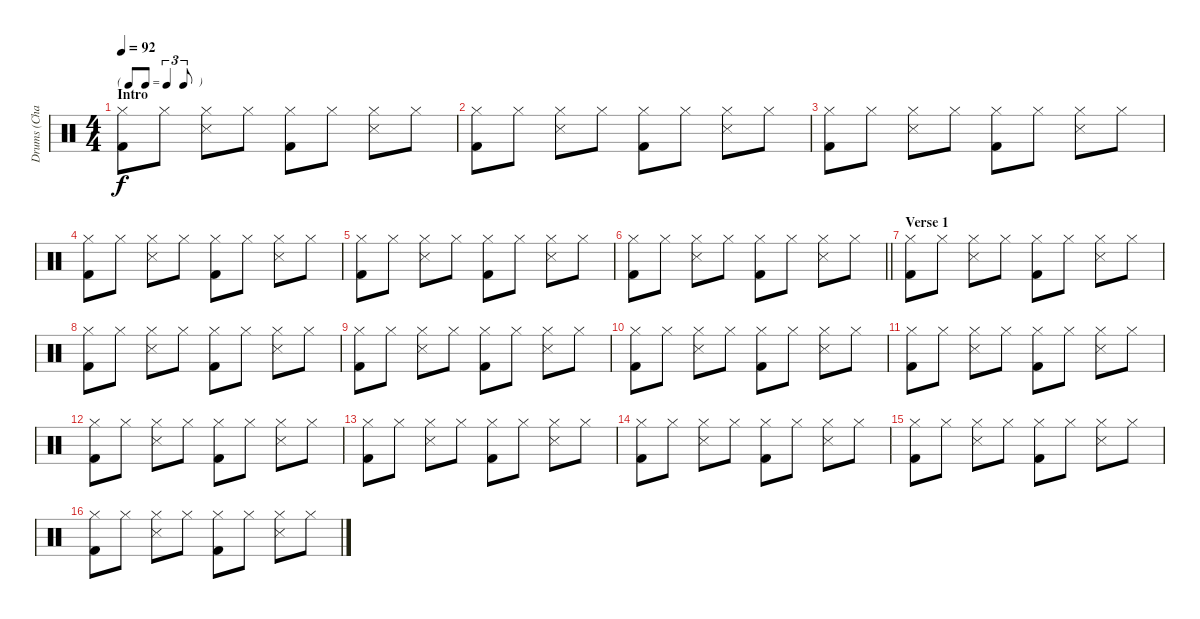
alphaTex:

\track ("Drums (Charlie)" "Drums (Cha") {instrument percussion}
\staff {score}
\articulation defaults
\ts (4 4)
\tf triplet8th
\section ("" "Intro")
\tempo 92
\clef neutral
\ks c
("Hi-Hat (closed)" "Kick (hit) 2").8{dy f} "Hi-Hat (closed)".8 ("Hi-Hat (closed)" "Snare (side stick) 3").8 "Hi-Hat (closed)".8 ("Hi-Hat (closed)" "Kick (hit) 2").8 "Hi-Hat (closed)".8 ("Hi-Hat (closed)" "Snare (side stick) 3").8 "Hi-Hat (closed)".8 |
("Hi-Hat (closed)" "Kick (hit) 2").8 "Hi-Hat (closed)".8 ("Hi-Hat (closed)" "Snare (side stick) 3").8 "Hi-Hat (closed)".8 ("Hi-Hat (closed)" "Kick (hit) 2").8 "Hi-Hat (closed)".8 ("Hi-Hat (closed)" "Snare (side stick) 3").8 "Hi-Hat (closed)".8 |
("Hi-Hat (closed)" "Kick (hit) 2").8 "Hi-Hat (closed)".8 ("Hi-Hat (closed)" "Snare (side stick) 3").8 "Hi-Hat (closed)".8 ("Hi-Hat (closed)" "Kick (hit) 2").8 "Hi-Hat (closed)".8 ("Hi-Hat (closed)" "Snare (side stick) 3").8 "Hi-Hat (closed)".8 |
("Hi-Hat (closed)" "Kick (hit) 2").8 "Hi-Hat (closed)".8 ("Hi-Hat (closed)" "Snare (side stick) 3").8 "Hi-Hat (closed)".8 ("Hi-Hat (closed)" "Kick (hit) 2").8 "Hi-Hat (closed)".8 ("Hi-Hat (closed)" "Snare (side stick) 3").8 "Hi-Hat (closed)".8 |
("Hi-Hat (closed)" "Kick (hit) 2").8 "Hi-Hat (closed)".8 ("Hi-Hat (closed)" "Snare (side stick) 3").8 "Hi-Hat (closed)".8 ("Hi-Hat (closed)" "Kick (hit) 2").8 "Hi-Hat (closed)".8 ("Hi-Hat (closed)" "Snare (side stick) 3").8 "Hi-Hat (closed)".8 |
\barLineRight lightlight
("Hi-Hat (closed)" "Kick (hit) 2").8 "Hi-Hat (closed)".8 ("Hi-Hat (closed)" "Snare (side stick) 3").8 "Hi-Hat (closed)".8 ("Hi-Hat (closed)" "Kick (hit) 2").8 "Hi-Hat (closed)".8 ("Hi-Hat (closed)" "Snare (side stick) 3").8 "Hi-Hat (closed)".8 |
\section ("" "Verse 1")
("Hi-Hat (closed)" "Kick (hit) 2").8 "Hi-Hat (closed)".8 ("Hi-Hat (closed)" "Snare (side stick) 3").8 "Hi-Hat (closed)".8 ("Hi-Hat (closed)" "Kick (hit) 2").8 "Hi-Hat (closed)".8 ("Hi-Hat (closed)" "Snare (side stick) 3").8 "Hi-Hat (closed)".8 |
("Hi-Hat (closed)" "Kick (hit) 2").8 "Hi-Hat (closed)".8 ("Hi-Hat (closed)" "Snare (side stick) 3").8 "Hi-Hat (closed)".8 ("Hi-Hat (closed)" "Kick (hit) 2").8 "Hi-Hat (closed)".8 ("Hi-Hat (closed)" "Snare (side stick) 3").8 "Hi-Hat (closed)".8 |
("Hi-Hat (closed)" "Kick (hit) 2").8 "Hi-Hat (closed)".8 ("Hi-Hat (closed)" "Snare (side stick) 3").8 "Hi-Hat (closed)".8 ("Hi-Hat (closed)" "Kick (hit) 2").8 "Hi-Hat (closed)".8 ("Hi-Hat (closed)" "Snare (side stick) 3").8 "Hi-Hat (closed)".8 |
("Hi-Hat (closed)" "Kick (hit) 2").8 "Hi-Hat (closed)".8 ("Hi-Hat (closed)" "Snare (side stick) 3").8 "Hi-Hat (closed)".8 ("Hi-Hat (closed)" "Kick (hit) 2").8 "Hi-Hat (closed)".8 ("Hi-Hat (closed)" "Snare (side stick) 3").8 "Hi-Hat (closed)".8 |
("Hi-Hat (closed)" "Kick (hit) 2").8 "Hi-Hat (closed)".8 ("Hi-Hat (closed)" "Snare (side stick) 3").8 "Hi-Hat (closed)".8 ("Hi-Hat (closed)" "Kick (hit) 2").8 "Hi-Hat (closed)".8 ("Hi-Hat (closed)" "Snare (side stick) 3").8 "Hi-Hat (closed)".8 |
("Hi-Hat (closed)" "Kick (hit) 2").8 "Hi-Hat (closed)".8 ("Hi-Hat (closed)" "Snare (side stick) 3").8 "Hi-Hat (closed)".8 ("Hi-Hat (closed)" "Kick (hit) 2").8 "Hi-Hat (closed)".8 ("Hi-Hat (closed)" "Snare (side stick) 3").8 "Hi-Hat (closed)".8 |
("Hi-Hat (closed)" "Kick (hit) 2").8 "Hi-Hat (closed)".8 ("Hi-Hat (closed)" "Snare (side stick) 3").8 "Hi-Hat (closed)".8 ("Hi-Hat (closed)" "Kick (hit) 2").8 "Hi-Hat (closed)".8 ("Hi-Hat (closed)" "Snare (side stick) 3").8 "Hi-Hat (closed)".8 |
("Hi-Hat (closed)" "Kick (hit) 2").8 "Hi-Hat (closed)".8 ("Hi-Hat (closed)" "Snare (side stick) 3").8 "Hi-Hat (closed)".8 ("Hi-Hat (closed)" "Kick (hit) 2").8 "Hi-Hat (closed)".8 ("Hi-Hat (closed)" "Snare (side stick) 3").8 "Hi-Hat (closed)".8 |
("Hi-Hat (closed)" "Kick (hit) 2").8 "Hi-Hat (closed)".8 ("Hi-Hat (closed)" "Snare (side stick) 3").8 "Hi-Hat (closed)".8 ("Hi-Hat (closed)" "Kick (hit) 2").8 "Hi-Hat (closed)".8 ("Hi-Hat (closed)" "Snare (side stick) 3").8 "Hi-Hat (closed)".8 |
("Hi-Hat (closed)" "Kick (hit) 2").8 "Hi-Hat (closed)".8 ("Hi-Hat (closed)" "Snare (side stick) 3").8 "Hi-Hat (closed)".8 ("Hi-Hat (closed)" "Kick (hit) 2").8 "Hi-Hat (closed)".8 ("Hi-Hat (closed)" "Snare (side stick) 3").8 "Hi-Hat (closed)".8
